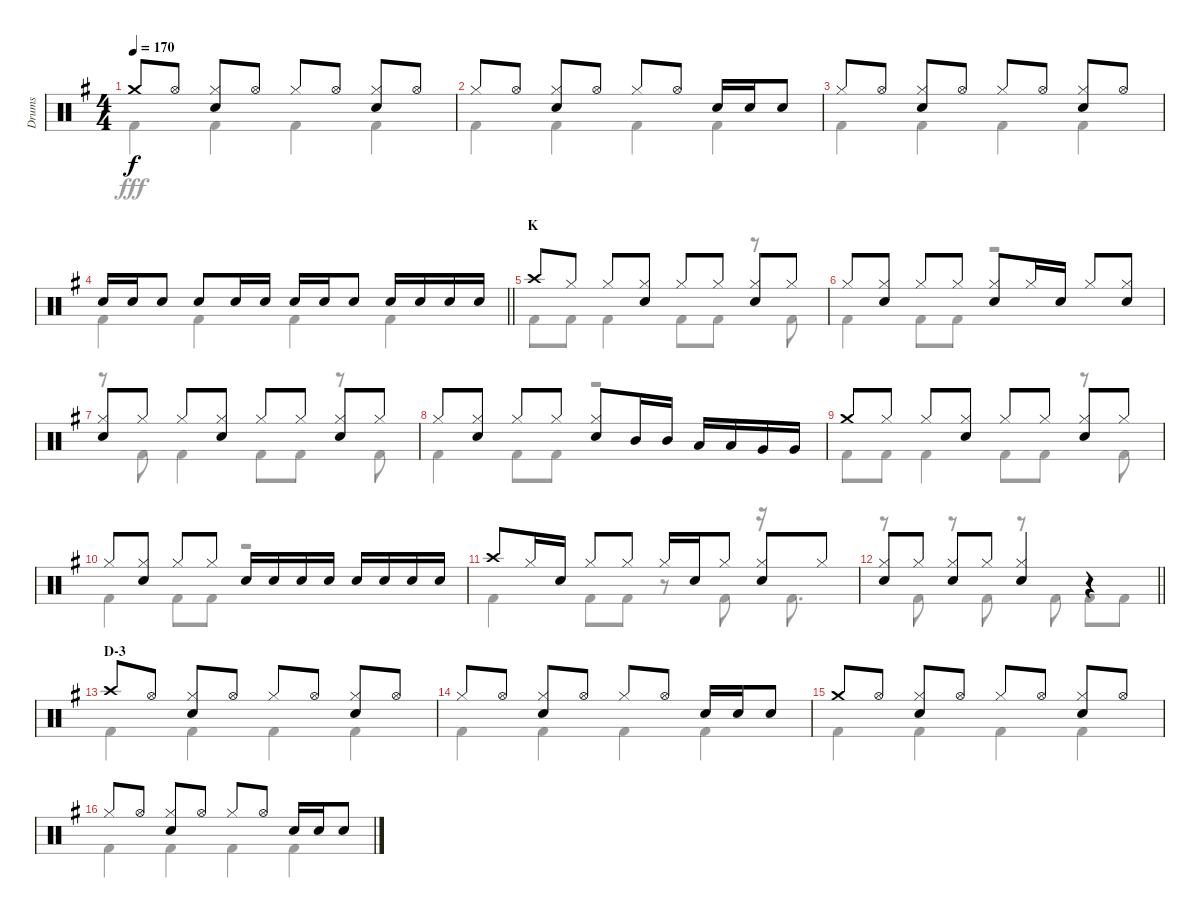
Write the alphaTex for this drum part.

\track ("Drums" "Drums") {instrument percussion}
\staff {score}
\articulation defaults
\voice
\ts (4 4)
\tempo 170
\clef neutral
\ks g "Crash medium (hit)".8{dy f} "Hi-Hat (open)".8
("Hi-Hat (closed)" "Snare (hit) 2").8 "Hi-Hat (open)".8 "Hi-Hat (closed)".8 "Hi-Hat (open)".8 ("Hi-Hat (closed)" "Snare (hit) 2").8 "Hi-Hat (open)".8 |
"Hi-Hat (closed)".8 "Hi-Hat (open)".8 ("Hi-Hat (closed)" "Snare (hit) 2").8 "Hi-Hat (open)".8 "Hi-Hat (closed)".8 "Hi-Hat (open)".8 "Snare (hit) 2".16 "Snare (hit) 2".16 "Snare (hit) 2".8 |
"Hi-Hat (closed)".8 "Hi-Hat (open)".8 ("Hi-Hat (closed)" "Snare (hit) 2").8 "Hi-Hat (open)".8 "Hi-Hat (closed)".8 "Hi-Hat (open)".8 ("Hi-Hat (closed)" "Snare (hit) 2").8 "Hi-Hat (open)".8 |
\barLineRight lightlight "Snare (hit) 2".16 "Snare (hit) 2".16 "Snare (hit) 2".8 "Snare (hit) 2".8 "Snare (hit) 2".16 "Snare (hit) 2".16 "Snare (hit) 2".16 "Snare (hit) 2".16 "Snare (hit) 2".8 "Snare (hit) 2".16 "Snare (hit) 2".16 "Snare (hit) 2".16 "Snare (hit) 2".16
|
\section ("" "K")
"Crash high (hit)".8 "Hi-Hat (closed)".8 "Hi-Hat (closed)".8 ("Hi-Hat (closed)" "Snare (hit) 2").8 "Hi-Hat (closed)".8 "Hi-Hat (closed)".8 ("Hi-Hat (closed)" "Snare (hit) 2").8 "Hi-Hat (closed)".8 |
"Hi-Hat (closed)".8 ("Hi-Hat (closed)" "Snare (hit) 2").8 "Hi-Hat (closed)".8 "Hi-Hat (closed)".8 ("Hi-Hat (closed)" "Snare (hit) 2").8 "Hi-Hat (closed)".16 "Snare (hit) 2".16 "Hi-Hat (closed)".8 ("Hi-Hat (closed)" "Snare (hit) 2").8 |
("Hi-Hat (closed)" "Snare (hit) 2").8 "Hi-Hat (closed)".8 "Hi-Hat (closed)".8 ("Hi-Hat (closed)" "Snare (hit) 2").8 "Hi-Hat (closed)".8 "Hi-Hat (closed)".8 ("Hi-Hat (closed)" "Snare (hit) 2").8 "Hi-Hat (closed)".8 |
"Hi-Hat (closed)".8 ("Hi-Hat (closed)" "Snare (hit) 2").8 "Hi-Hat (closed)".8 "Hi-Hat (closed)".8 ("Hi-Hat (closed)" "Snare (hit) 2").8 "Mid Tom (hit)".16 "Mid Tom (hit)".16 "Low Tom (hit)".16 "Low Tom (hit)".16 "Very Low Tom (hit)".16 "Very Low Tom (hit)".16 |
"Crash medium (hit)".8 "Hi-Hat (closed)".8 "Hi-Hat (closed)".8 ("Hi-Hat (closed)" "Snare (hit) 2").8 "Hi-Hat (closed)".8 "Hi-Hat (closed)".8 ("Hi-Hat (closed)" "Snare (hit) 2").8 "Hi-Hat (closed)".8 |
"Hi-Hat (closed)".8 ("Hi-Hat (closed)" "Snare (hit) 2").8 "Hi-Hat (closed)".8 "Hi-Hat (closed)".8 "Snare (hit) 2".16 "Snare (hit) 2".16 "Snare (hit) 2".16 "Snare (hit) 2".16 "Snare (hit) 2".16 "Snare (hit) 2".16 "Snare (hit) 2".16 "Snare (hit) 2".16 |
"Crash high (hit)".8 "Hi-Hat (closed)".16 "Snare (hit) 2".16 "Hi-Hat (closed)".8 "Hi-Hat (closed)".8 "Hi-Hat (closed)".16 "Snare (hit) 2".16 "Hi-Hat (closed)".8 ("Hi-Hat (closed)" "Snare (hit) 2").8 "Hi-Hat (closed)".8 |
\barLineRight lightlight
("Hi-Hat (closed)" "Snare (hit) 2").8 "Hi-Hat (closed)".8 ("Hi-Hat (closed)" "Snare (hit) 2").8 "Hi-Hat (closed)".8 ("Hi-Hat (closed)" "Snare (hit) 2").4 r.4 |
\section ("" "D-3")
"Crash high (hit)".8 "Hi-Hat (open)".8 ("Hi-Hat (closed)" "Snare (hit) 2").8 "Hi-Hat (open)".8 "Hi-Hat (closed)".8 "Hi-Hat (open)".8 ("Hi-Hat (closed)" "Snare (hit) 2").8 "Hi-Hat (open)".8 |
"Hi-Hat (closed)".8 "Hi-Hat (open)".8 ("Hi-Hat (closed)" "Snare (hit) 2").8 "Hi-Hat (open)".8 "Hi-Hat (closed)".8 "Hi-Hat (open)".8 "Snare (hit) 2".16 "Snare (hit) 2".16 "Snare (hit) 2".8 |
"Crash medium (hit)".8 "Hi-Hat (open)".8 ("Hi-Hat (closed)" "Snare (hit) 2").8 "Hi-Hat (open)".8 "Hi-Hat (closed)".8 "Hi-Hat (open)".8 ("Hi-Hat (closed)" "Snare (hit) 2").8 "Hi-Hat (open)".8 |
"Hi-Hat (closed)".8 "Hi-Hat (open)".8 ("Hi-Hat (closed)" "Snare (hit) 2").8 "Hi-Hat (open)".8 "Hi-Hat (closed)".8 "Hi-Hat (open)".8 "Snare (hit) 2".16 "Snare (hit) 2".16 "Snare (hit) 2".8
\voice
\clef neutral
\ottava regular
\simile none
\ks g "Kick (hit) 2".4{dy fff} "Kick (hit) 2".4 "Kick (hit) 2".4 "Kick (hit) 2".4
|
"Kick (hit) 2".4 "Kick (hit) 2".4 "Kick (hit) 2".4 "Kick (hit) 2".4 |
"Kick (hit) 2".4 "Kick (hit) 2".4 "Kick (hit) 2".4 "Kick (hit) 2".4 |
\barLineRight lightlight "Kick (hit) 2".4 "Kick (hit) 2".4 "Kick (hit) 2".4 "Kick (hit) 2".4
|
"Kick (hit) 2".8 "Kick (hit) 2".8 "Kick (hit) 2".4 "Kick (hit) 2".8 "Kick (hit) 2".8 r.8 "Kick (hit) 2".8 |
"Kick (hit) 2".4 "Kick (hit) 2".8 "Kick (hit) 2".8 r.2 |
r.8 "Kick (hit) 2".8 "Kick (hit) 2".4 "Kick (hit) 2".8 "Kick (hit) 2".8 r.8 "Kick (hit) 2".8 |
"Kick (hit) 2".4 "Kick (hit) 2".8 "Kick (hit) 2".8 r.2 |
"Kick (hit) 2".8 "Kick (hit) 2".8 "Kick (hit) 2".4 "Kick (hit) 2".8 "Kick (hit) 2".8 r.8 "Kick (hit) 2".8 |
"Kick (hit) 2".4 "Kick (hit) 2".8 "Kick (hit) 2".8 r.2 |
"Kick (hit) 2".4 "Kick (hit) 2".8 "Kick (hit) 2".8 r.8 "Kick (hit) 2".8 r.16 "Kick (hit) 2".8{d} |
\barLineRight lightlight
r.8 "Kick (hit) 2".8 r.8 "Kick (hit) 2".8 r.8 "Kick (hit) 2".8 "Kick (hit) 2".8 "Kick (hit) 2".8 |
"Kick (hit) 2".4 "Kick (hit) 2".4 "Kick (hit) 2".4 "Kick (hit) 2".4 |
"Kick (hit) 2".4 "Kick (hit) 2".4 "Kick (hit) 2".4 "Kick (hit) 2".4 |
"Kick (hit) 2".4 "Kick (hit) 2".4 "Kick (hit) 2".4 "Kick (hit) 2".4 |
"Kick (hit) 2".4 "Kick (hit) 2".4 "Kick (hit) 2".4 "Kick (hit) 2".4
